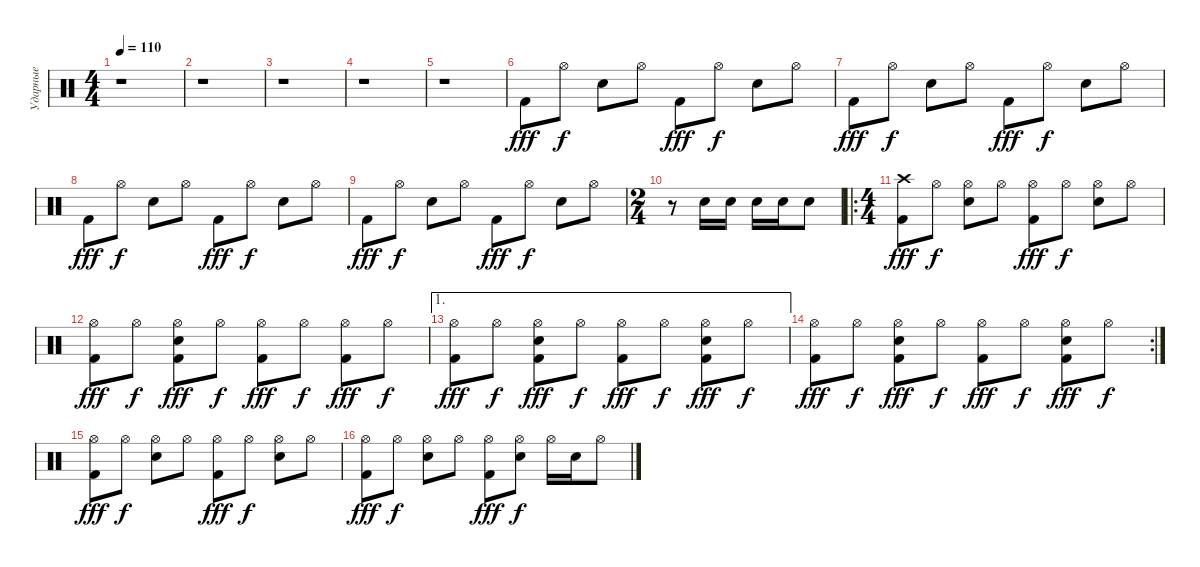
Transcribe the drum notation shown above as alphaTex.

\track ("Ударные" "Ударные") {instrument percussion}
\staff
\articulation defaults
\ts (4 4)
\tempo 110
\clef neutral
\ks c
r.1{dy fff} |
r.1 |
r.1 |
r.1 |
r.1 |
"Kick (hit) 2".8 "Hi-Hat (open)".8{dy f} "Snare (hit) 2".8 "Hi-Hat (open)".8 "Kick (hit) 2".8{dy fff} "Hi-Hat (open)".8{dy f} "Snare (hit) 2".8 "Hi-Hat (open)".8 |
"Kick (hit) 2".8{dy fff} "Hi-Hat (open)".8{dy f} "Snare (hit) 2".8 "Hi-Hat (open)".8 "Kick (hit) 2".8{dy fff} "Hi-Hat (open)".8{dy f} "Snare (hit) 2".8 "Hi-Hat (open)".8 |
"Kick (hit) 2".8{dy fff} "Hi-Hat (open)".8{dy f} "Snare (hit) 2".8 "Hi-Hat (open)".8 "Kick (hit) 2".8{dy fff} "Hi-Hat (open)".8{dy f} "Snare (hit) 2".8 "Hi-Hat (open)".8 |
"Kick (hit) 2".8{dy fff} "Hi-Hat (open)".8{dy f} "Snare (hit) 2".8 "Hi-Hat (open)".8 "Kick (hit) 2".8{dy fff} "Hi-Hat (open)".8{dy f} "Snare (hit) 2".8 "Hi-Hat (open)".8 |
\ts (2 4)
r.8 "Snare (hit) 2".16 "Snare (hit) 2".16 "Snare (hit) 2".16 "Snare (hit) 2".16 "Snare (hit) 2".8 |
\ro
\ts (4 4)
("Kick (hit) 2" "Crash high (hit)").8{dy fff} "Hi-Hat (open)".8{dy f} ("Snare (hit) 2" "Hi-Hat (open)").8 "Hi-Hat (open)".8 ("Kick (hit) 2" "Hi-Hat (open)").8{dy fff} "Hi-Hat (open)".8{dy f} ("Snare (hit) 2" "Hi-Hat (open)").8 "Hi-Hat (open)".8 |
("Kick (hit) 2" "Hi-Hat (open)").8{dy fff} "Hi-Hat (open)".8{dy f} ("Kick (hit) 2" "Snare (hit) 2" "Hi-Hat (open)").8{dy fff} "Hi-Hat (open)".8{dy f} ("Kick (hit) 2" "Hi-Hat (open)").8{dy fff} "Hi-Hat (open)".8{dy f} ("Kick (hit) 2" "Hi-Hat (open)").8{dy fff} "Hi-Hat (open)".8{dy f} |
\ae 1
("Kick (hit) 2" "Hi-Hat (open)").8{dy fff} "Hi-Hat (open)".8{dy f} ("Kick (hit) 2" "Snare (hit) 2" "Hi-Hat (open)").8{dy fff} "Hi-Hat (open)".8{dy f} ("Kick (hit) 2" "Hi-Hat (open)").8{dy fff} "Hi-Hat (open)".8{dy f} ("Kick (hit) 2" "Snare (hit) 2" "Hi-Hat (open)").8{dy fff} "Hi-Hat (open)".8{dy f} |
\rc 2
("Kick (hit) 2" "Hi-Hat (open)").8{dy fff} "Hi-Hat (open)".8{dy f} ("Kick (hit) 2" "Snare (hit) 2" "Hi-Hat (open)").8{dy fff} "Hi-Hat (open)".8{dy f} ("Kick (hit) 2" "Hi-Hat (open)").8{dy fff} "Hi-Hat (open)".8{dy f} ("Kick (hit) 2" "Snare (hit) 2" "Hi-Hat (open)").8{dy fff} "Hi-Hat (open)".8{dy f} |
("Kick (hit) 2" "Hi-Hat (open)").8{dy fff} "Hi-Hat (open)".8{dy f} ("Snare (hit) 2" "Hi-Hat (open)").8 "Hi-Hat (open)".8 ("Kick (hit) 2" "Hi-Hat (open)").8{dy fff} "Hi-Hat (open)".8{dy f} ("Snare (hit) 2" "Hi-Hat (open)").8 "Hi-Hat (open)".8 |
("Kick (hit) 2" "Hi-Hat (open)").8{dy fff} "Hi-Hat (open)".8{dy f} ("Snare (hit) 2" "Hi-Hat (open)").8 "Hi-Hat (open)".8 ("Kick (hit) 2" "Hi-Hat (open)").8{dy fff} ("Snare (hit) 2" "Hi-Hat (open)").8{dy f} "Hi-Hat (open)".16 "Snare (hit) 2".16 "Hi-Hat (open)".8
